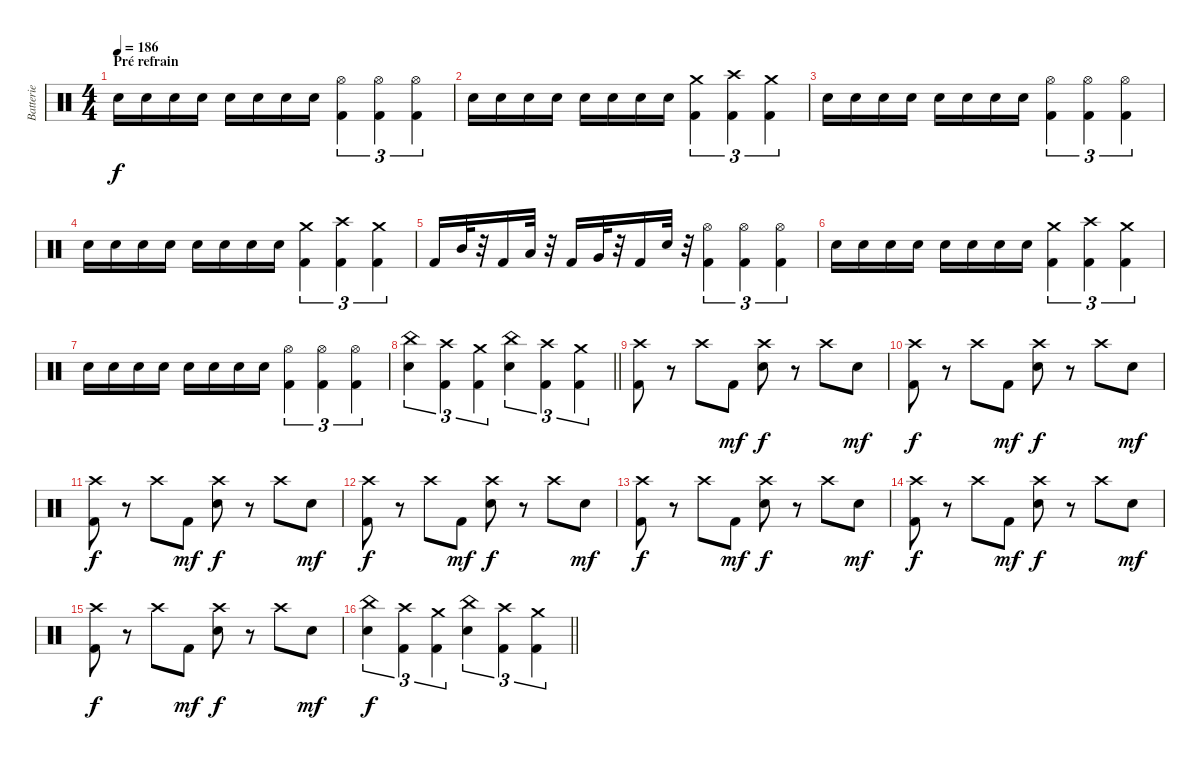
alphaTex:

\track ("Batterie" "Batterie") {instrument percussion}
\staff {score}
\articulation defaults
\ts (4 4)
\section ("" "Pré refrain")
\tempo 186
\clef neutral
\ks c "Electric Snare (hit)".16{dy f} "Electric Snare (hit)".16 "Electric Snare (hit)".16 "Electric Snare (hit)".16 "Electric Snare (hit)".16 "Electric Snare (hit)".16 "Electric Snare (hit)".16 "Electric Snare (hit)".16
("Kick (hit) 2" "Hi-Hat (open)").4{tu (3 2)} ("Kick (hit) 2" "Hi-Hat (open)").4{tu (3 2)} ("Kick (hit) 2" "Hi-Hat (open)").4{tu (3 2)} |
"Electric Snare (hit)".16 "Electric Snare (hit)".16 "Electric Snare (hit)".16 "Electric Snare (hit)".16 "Electric Snare (hit)".16 "Electric Snare (hit)".16 "Electric Snare (hit)".16 "Electric Snare (hit)".16 ("Kick (hit) 2" "Crash medium (hit)").4{tu (3 2)} ("Kick (hit) 2" "Crash high (hit)").4{tu (3 2)} ("Kick (hit) 2" "Crash medium (hit)").4{tu (3 2)} |
"Electric Snare (hit)".16 "Electric Snare (hit)".16 "Electric Snare (hit)".16 "Electric Snare (hit)".16 "Electric Snare (hit)".16 "Electric Snare (hit)".16 "Electric Snare (hit)".16 "Electric Snare (hit)".16 ("Kick (hit) 2" "Hi-Hat (open)").4{tu (3 2)} ("Kick (hit) 2" "Hi-Hat (open)").4{tu (3 2)} ("Kick (hit) 2" "Hi-Hat (open)").4{tu (3 2)} |
"Electric Snare (hit)".16 "Electric Snare (hit)".16 "Electric Snare (hit)".16 "Electric Snare (hit)".16 "Electric Snare (hit)".16 "Electric Snare (hit)".16 "Electric Snare (hit)".16 "Electric Snare (hit)".16 ("Kick (hit) 2" "Crash medium (hit)").4{tu (3 2)} ("Kick (hit) 2" "Crash high (hit)").4{tu (3 2)} ("Kick (hit) 2" "Crash medium (hit)").4{tu (3 2)} |
"Kick (hit) 2".16 "Mid Tom (hit)".32 r.32 "Kick (hit) 2".16 "Low Tom (hit)".32 r.32 "Kick (hit) 2".16 "Very Low Tom (hit)".32 r.32 "Kick (hit) 2".16 "Electric Snare (hit)".32 r.32 ("Kick (hit) 2" "Hi-Hat (open)").4{tu (3 2)} ("Kick (hit) 2" "Hi-Hat (open)").4{tu (3 2)} ("Kick (hit) 2" "Hi-Hat (open)").4{tu (3 2)} |
"Electric Snare (hit)".16 "Electric Snare (hit)".16 "Electric Snare (hit)".16 "Electric Snare (hit)".16 "Electric Snare (hit)".16 "Electric Snare (hit)".16 "Electric Snare (hit)".16 "Electric Snare (hit)".16 ("Kick (hit) 2" "Crash medium (hit)").4{tu (3 2)} ("Kick (hit) 2" "Crash high (hit)").4{tu (3 2)} ("Kick (hit) 2" "Crash medium (hit)").4{tu (3 2)} |
"Electric Snare (hit)".16 "Electric Snare (hit)".16 "Electric Snare (hit)".16 "Electric Snare (hit)".16 "Electric Snare (hit)".16 "Electric Snare (hit)".16 "Electric Snare (hit)".16 "Electric Snare (hit)".16 ("Kick (hit) 2" "Hi-Hat (open)").4{tu (3 2)} ("Kick (hit) 2" "Hi-Hat (open)").4{tu (3 2)} ("Kick (hit) 2" "Hi-Hat (open)").4{tu (3 2)} |
\barLineRight lightlight
("Electric Snare (hit)" "China (hit)").4{tu (3 2)} ("Kick (hit) 2" "Crash high (hit)").4{tu (3 2)} ("Kick (hit) 2" "Crash medium (hit)").4{tu (3 2)} ("Electric Snare (hit)" "China (hit)").4{tu (3 2)} ("Kick (hit) 2" "Crash high (hit)").4{tu (3 2)} ("Kick (hit) 2" "Crash medium (hit)").4{tu (3 2)} |
("Kick (hit) 2" "Crash high (hit)").8 r.8 "Crash high (hit)".8 "Kick (hit) 2".8{dy mf} ("Electric Snare (hit)" "Crash high (hit)").8{dy f} r.8 "Crash high (hit)".8 "Electric Snare (hit)".8{dy mf} |
("Kick (hit) 2" "Crash high (hit)").8{dy f} r.8 "Crash high (hit)".8 "Kick (hit) 2".8{dy mf} ("Electric Snare (hit)" "Crash high (hit)").8{dy f} r.8 "Crash high (hit)".8 "Electric Snare (hit)".8{dy mf} |
("Kick (hit) 2" "Crash high (hit)").8{dy f} r.8 "Crash high (hit)".8 "Kick (hit) 2".8{dy mf} ("Electric Snare (hit)" "Crash high (hit)").8{dy f} r.8 "Crash high (hit)".8 "Electric Snare (hit)".8{dy mf} |
("Kick (hit) 2" "Crash high (hit)").8{dy f} r.8 "Crash high (hit)".8 "Kick (hit) 2".8{dy mf} ("Electric Snare (hit)" "Crash high (hit)").8{dy f} r.8 "Crash high (hit)".8 "Electric Snare (hit)".8{dy mf} |
("Kick (hit) 2" "Crash high (hit)").8{dy f} r.8 "Crash high (hit)".8 "Kick (hit) 2".8{dy mf} ("Electric Snare (hit)" "Crash high (hit)").8{dy f} r.8 "Crash high (hit)".8 "Electric Snare (hit)".8{dy mf} |
("Kick (hit) 2" "Crash high (hit)").8{dy f} r.8 "Crash high (hit)".8 "Kick (hit) 2".8{dy mf} ("Electric Snare (hit)" "Crash high (hit)").8{dy f} r.8 "Crash high (hit)".8 "Electric Snare (hit)".8{dy mf} |
("Kick (hit) 2" "Crash high (hit)").8{dy f} r.8 "Crash high (hit)".8 "Kick (hit) 2".8{dy mf} ("Electric Snare (hit)" "Crash high (hit)").8{dy f} r.8 "Crash high (hit)".8 "Electric Snare (hit)".8{dy mf} |
\barLineRight lightlight
("Electric Snare (hit)" "China (hit)").4{tu (3 2) dy f} ("Kick (hit) 2" "Crash high (hit)").4{tu (3 2)} ("Kick (hit) 2" "Crash medium (hit)").4{tu (3 2)} ("Electric Snare (hit)" "China (hit)").4{tu (3 2)} ("Kick (hit) 2" "Crash high (hit)").4{tu (3 2)} ("Kick (hit) 2" "Crash medium (hit)").4{tu (3 2)}
